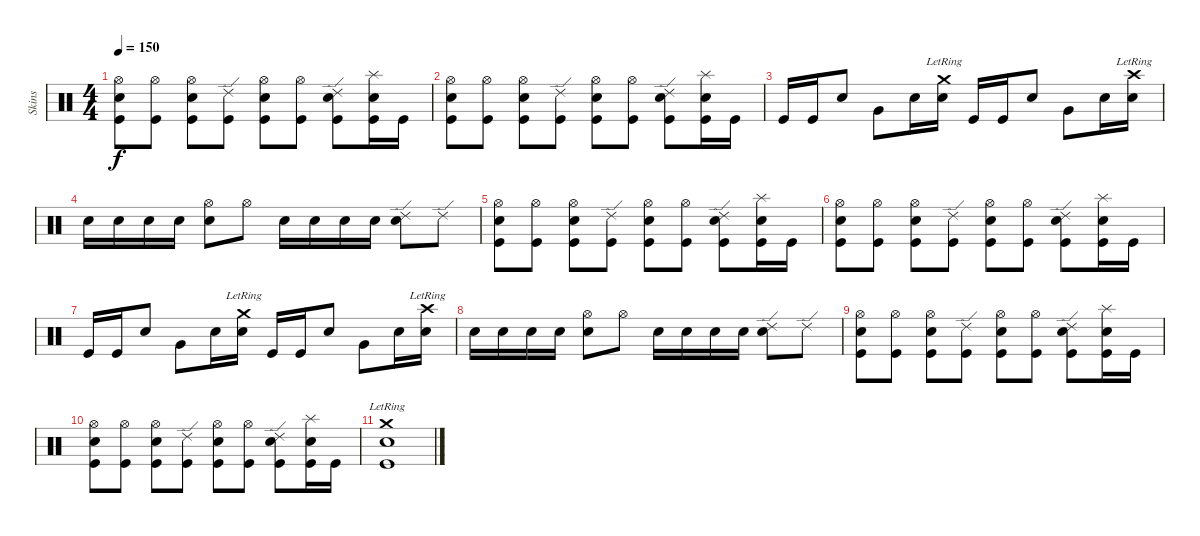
\track ("Skins" "Skins") {instrument percussion}
\staff {score}
\articulation defaults
\ts (4 4)
\tempo 150
\clef neutral
\ks c
("Hi-Hat (open)" "Snare (hit) 2" "Kick (hit)").8{dy f} ("Hi-Hat (open)" "Kick (hit)").8 ("Hi-Hat (open)" "Snare (hit) 2" "Kick (hit)").8 ("Ride (edge) 2" "Kick (hit)").8 ("Hi-Hat (open)" "Snare (hit) 2" "Kick (hit)").8 ("Hi-Hat (open)" "Kick (hit)").8 ("Ride (edge) 2" "Electric Snare (hit)" "Kick (hit)").8 ("Splash (hit)" "Electric Snare (hit)" "Kick (hit)").16 "Kick (hit)".16 |
("Hi-Hat (open)" "Snare (hit) 2" "Kick (hit)").8 ("Hi-Hat (open)" "Kick (hit)").8 ("Hi-Hat (open)" "Snare (hit) 2" "Kick (hit)").8 ("Ride (edge) 2" "Kick (hit)").8 ("Hi-Hat (open)" "Snare (hit) 2" "Kick (hit)").8 ("Hi-Hat (open)" "Kick (hit)").8 ("Ride (edge) 2" "Electric Snare (hit)" "Kick (hit)").8 ("Splash (hit)" "Electric Snare (hit)" "Kick (hit)").16 "Kick (hit)".16 |
"Kick (hit)".16 "Kick (hit)".16 "Snare (hit) 2".8 "Very Low Tom (hit)".8 "Electric Snare (hit)".16 ("Electric Snare (hit)" "Crash medium (hit)"{lr}).16 "Kick (hit)".16 "Kick (hit)".16 "Snare (hit) 2".8 "Very Low Tom (hit)".8 "Electric Snare (hit)".16 ("Electric Snare (hit)" "Crash high (hit)"{lr}).16 |
"Electric Snare (hit)".16 "Electric Snare (hit)".16 "Electric Snare (hit)".16 "Electric Snare (hit)".16 ("Electric Snare (hit)" "Hi-Hat (open)").8 "Hi-Hat (open)".8 "Snare (hit) 2".16 "Snare (hit) 2".16 "Snare (hit) 2".16 "Snare (hit) 2".16 ("Snare (hit) 2" "Ride (edge) 2").8 "Ride (edge) 2".8 |
("Hi-Hat (open)" "Snare (hit) 2" "Kick (hit)").8 ("Hi-Hat (open)" "Kick (hit)").8 ("Hi-Hat (open)" "Snare (hit) 2" "Kick (hit)").8 ("Ride (edge) 2" "Kick (hit)").8 ("Hi-Hat (open)" "Snare (hit) 2" "Kick (hit)").8 ("Hi-Hat (open)" "Kick (hit)").8 ("Ride (edge) 2" "Electric Snare (hit)" "Kick (hit)").8 ("Splash (hit)" "Electric Snare (hit)" "Kick (hit)").16 "Kick (hit)".16 |
("Hi-Hat (open)" "Snare (hit) 2" "Kick (hit)").8 ("Hi-Hat (open)" "Kick (hit)").8 ("Hi-Hat (open)" "Snare (hit) 2" "Kick (hit)").8 ("Ride (edge) 2" "Kick (hit)").8 ("Hi-Hat (open)" "Snare (hit) 2" "Kick (hit)").8 ("Hi-Hat (open)" "Kick (hit)").8 ("Ride (edge) 2" "Electric Snare (hit)" "Kick (hit)").8 ("Splash (hit)" "Electric Snare (hit)" "Kick (hit)").16 "Kick (hit)".16 |
"Kick (hit)".16 "Kick (hit)".16 "Snare (hit) 2".8 "Very Low Tom (hit)".8 "Electric Snare (hit)".16 ("Electric Snare (hit)" "Crash medium (hit)"{lr}).16 "Kick (hit)".16 "Kick (hit)".16 "Snare (hit) 2".8 "Very Low Tom (hit)".8 "Electric Snare (hit)".16 ("Electric Snare (hit)" "Crash high (hit)"{lr}).16 |
"Electric Snare (hit)".16 "Electric Snare (hit)".16 "Electric Snare (hit)".16 "Electric Snare (hit)".16 ("Electric Snare (hit)" "Hi-Hat (open)").8 "Hi-Hat (open)".8 "Snare (hit) 2".16 "Snare (hit) 2".16 "Snare (hit) 2".16 "Snare (hit) 2".16 ("Snare (hit) 2" "Ride (edge) 2").8 "Ride (edge) 2".8 |
("Hi-Hat (open)" "Snare (hit) 2" "Kick (hit)").8 ("Hi-Hat (open)" "Kick (hit)").8 ("Hi-Hat (open)" "Snare (hit) 2" "Kick (hit)").8 ("Ride (edge) 2" "Kick (hit)").8 ("Hi-Hat (open)" "Snare (hit) 2" "Kick (hit)").8 ("Hi-Hat (open)" "Kick (hit)").8 ("Ride (edge) 2" "Electric Snare (hit)" "Kick (hit)").8 ("Splash (hit)" "Electric Snare (hit)" "Kick (hit)").16 "Kick (hit)".16 |
("Hi-Hat (open)" "Snare (hit) 2" "Kick (hit)").8 ("Hi-Hat (open)" "Kick (hit)").8 ("Hi-Hat (open)" "Snare (hit) 2" "Kick (hit)").8 ("Ride (edge) 2" "Kick (hit)").8 ("Hi-Hat (open)" "Snare (hit) 2" "Kick (hit)").8 ("Hi-Hat (open)" "Kick (hit)").8 ("Ride (edge) 2" "Electric Snare (hit)" "Kick (hit)").8 ("Splash (hit)" "Electric Snare (hit)" "Kick (hit)").16 "Kick (hit)".16 |
("Snare (hit) 2" "Crash medium (hit)"{lr} "Kick (hit)").1
